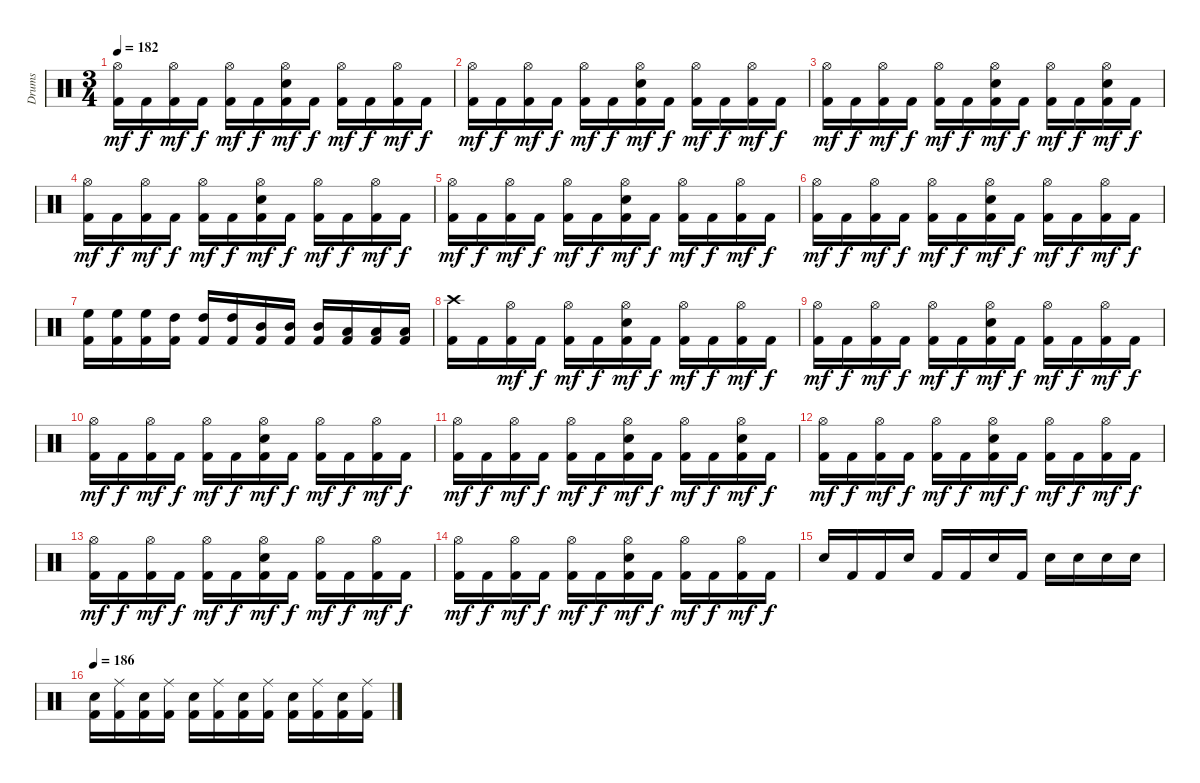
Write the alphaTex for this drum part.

\track ("Drums" "Drums") {instrument percussion}
\staff {score}
\articulation defaults
\ts (3 4)
\tempo 182
\clef neutral
\ks c
("Hi-Hat (open)" "Kick (hit) 2").16{dy mf} "Kick (hit) 2".16{dy f} ("Hi-Hat (open)" "Kick (hit) 2").16{dy mf} "Kick (hit) 2".16{dy f} ("Hi-Hat (open)" "Kick (hit) 2").16{dy mf} "Kick (hit) 2".16{dy f} ("Hi-Hat (open)" "Electric Snare (hit)" "Kick (hit) 2").16{dy mf} "Kick (hit) 2".16{dy f} ("Hi-Hat (open)" "Kick (hit) 2").16{dy mf} "Kick (hit) 2".16{dy f} ("Hi-Hat (open)" "Kick (hit) 2").16{dy mf} "Kick (hit) 2".16{dy f} |
("Hi-Hat (open)" "Kick (hit) 2").16{dy mf} "Kick (hit) 2".16{dy f} ("Hi-Hat (open)" "Kick (hit) 2").16{dy mf} "Kick (hit) 2".16{dy f} ("Hi-Hat (open)" "Kick (hit) 2").16{dy mf} "Kick (hit) 2".16{dy f} ("Hi-Hat (open)" "Electric Snare (hit)" "Kick (hit) 2").16{dy mf} "Kick (hit) 2".16{dy f} ("Hi-Hat (open)" "Kick (hit) 2").16{dy mf} "Kick (hit) 2".16{dy f} ("Hi-Hat (open)" "Kick (hit) 2").16{dy mf} "Kick (hit) 2".16{dy f} |
("Hi-Hat (open)" "Kick (hit) 2").16{dy mf} "Kick (hit) 2".16{dy f} ("Hi-Hat (open)" "Kick (hit) 2").16{dy mf} "Kick (hit) 2".16{dy f} ("Hi-Hat (open)" "Kick (hit) 2").16{dy mf} "Kick (hit) 2".16{dy f} ("Hi-Hat (open)" "Electric Snare (hit)" "Kick (hit) 2").16{dy mf} "Kick (hit) 2".16{dy f} ("Hi-Hat (open)" "Kick (hit) 2").16{dy mf} "Kick (hit) 2".16{dy f} ("Hi-Hat (open)" "Electric Snare (hit)" "Kick (hit) 2").16{dy mf} "Kick (hit) 2".16{dy f} |
("Hi-Hat (open)" "Kick (hit) 2").16{dy mf} "Kick (hit) 2".16{dy f} ("Hi-Hat (open)" "Kick (hit) 2").16{dy mf} "Kick (hit) 2".16{dy f} ("Hi-Hat (open)" "Kick (hit) 2").16{dy mf} "Kick (hit) 2".16{dy f} ("Hi-Hat (open)" "Electric Snare (hit)" "Kick (hit) 2").16{dy mf} "Kick (hit) 2".16{dy f} ("Hi-Hat (open)" "Kick (hit) 2").16{dy mf} "Kick (hit) 2".16{dy f} ("Hi-Hat (open)" "Kick (hit) 2").16{dy mf} "Kick (hit) 2".16{dy f} |
("Hi-Hat (open)" "Kick (hit) 2").16{dy mf} "Kick (hit) 2".16{dy f} ("Hi-Hat (open)" "Kick (hit) 2").16{dy mf} "Kick (hit) 2".16{dy f} ("Hi-Hat (open)" "Kick (hit) 2").16{dy mf} "Kick (hit) 2".16{dy f} ("Hi-Hat (open)" "Electric Snare (hit)" "Kick (hit) 2").16{dy mf} "Kick (hit) 2".16{dy f} ("Hi-Hat (open)" "Kick (hit) 2").16{dy mf} "Kick (hit) 2".16{dy f} ("Hi-Hat (open)" "Kick (hit) 2").16{dy mf} "Kick (hit) 2".16{dy f} |
("Hi-Hat (open)" "Kick (hit) 2").16{dy mf} "Kick (hit) 2".16{dy f} ("Hi-Hat (open)" "Kick (hit) 2").16{dy mf} "Kick (hit) 2".16{dy f} ("Hi-Hat (open)" "Kick (hit) 2").16{dy mf} "Kick (hit) 2".16{dy f} ("Hi-Hat (open)" "Electric Snare (hit)" "Kick (hit) 2").16{dy mf} "Kick (hit) 2".16{dy f} ("Hi-Hat (open)" "Kick (hit) 2").16{dy mf} "Kick (hit) 2".16{dy f} ("Hi-Hat (open)" "Kick (hit) 2").16{dy mf} "Kick (hit) 2".16{dy f} |
("High Floor Tom (hit)" "Kick (hit) 2").16 ("High Floor Tom (hit)" "Kick (hit) 2").16 ("High Floor Tom (hit)" "Kick (hit) 2").16 ("High Tom (hit)" "Kick (hit) 2").16 ("High Tom (hit)" "Kick (hit) 2").16 ("High Tom (hit)" "Kick (hit) 2").16 ("Mid Tom (hit)" "Kick (hit) 2").16 ("Mid Tom (hit)" "Kick (hit) 2").16 ("Mid Tom (hit)" "Kick (hit) 2").16 ("Low Tom (hit)" "Kick (hit) 2").16 ("Low Tom (hit)" "Kick (hit) 2").16 ("Low Tom (hit)" "Kick (hit) 2").16 |
("Crash high (hit)" "Kick (hit) 2").16 "Kick (hit) 2".16 ("Hi-Hat (open)" "Kick (hit) 2").16{dy mf} "Kick (hit) 2".16{dy f} ("Hi-Hat (open)" "Kick (hit) 2").16{dy mf} "Kick (hit) 2".16{dy f} ("Hi-Hat (open)" "Electric Snare (hit)" "Kick (hit) 2").16{dy mf} "Kick (hit) 2".16{dy f} ("Hi-Hat (open)" "Kick (hit) 2").16{dy mf} "Kick (hit) 2".16{dy f} ("Hi-Hat (open)" "Kick (hit) 2").16{dy mf} "Kick (hit) 2".16{dy f} |
("Hi-Hat (open)" "Kick (hit) 2").16{dy mf} "Kick (hit) 2".16{dy f} ("Hi-Hat (open)" "Kick (hit) 2").16{dy mf} "Kick (hit) 2".16{dy f} ("Hi-Hat (open)" "Kick (hit) 2").16{dy mf} "Kick (hit) 2".16{dy f} ("Hi-Hat (open)" "Electric Snare (hit)" "Kick (hit) 2").16{dy mf} "Kick (hit) 2".16{dy f} ("Hi-Hat (open)" "Kick (hit) 2").16{dy mf} "Kick (hit) 2".16{dy f} ("Hi-Hat (open)" "Kick (hit) 2").16{dy mf} "Kick (hit) 2".16{dy f} |
("Hi-Hat (open)" "Kick (hit) 2").16{dy mf} "Kick (hit) 2".16{dy f} ("Hi-Hat (open)" "Kick (hit) 2").16{dy mf} "Kick (hit) 2".16{dy f} ("Hi-Hat (open)" "Kick (hit) 2").16{dy mf} "Kick (hit) 2".16{dy f} ("Hi-Hat (open)" "Electric Snare (hit)" "Kick (hit) 2").16{dy mf} "Kick (hit) 2".16{dy f} ("Hi-Hat (open)" "Kick (hit) 2").16{dy mf} "Kick (hit) 2".16{dy f} ("Hi-Hat (open)" "Kick (hit) 2").16{dy mf} "Kick (hit) 2".16{dy f} |
("Hi-Hat (open)" "Kick (hit) 2").16{dy mf} "Kick (hit) 2".16{dy f} ("Hi-Hat (open)" "Kick (hit) 2").16{dy mf} "Kick (hit) 2".16{dy f} ("Hi-Hat (open)" "Kick (hit) 2").16{dy mf} "Kick (hit) 2".16{dy f} ("Hi-Hat (open)" "Electric Snare (hit)" "Kick (hit) 2").16{dy mf} "Kick (hit) 2".16{dy f} ("Hi-Hat (open)" "Kick (hit) 2").16{dy mf} "Kick (hit) 2".16{dy f} ("Hi-Hat (open)" "Electric Snare (hit)" "Kick (hit) 2").16{dy mf} "Kick (hit) 2".16{dy f} |
("Hi-Hat (open)" "Kick (hit) 2").16{dy mf} "Kick (hit) 2".16{dy f} ("Hi-Hat (open)" "Kick (hit) 2").16{dy mf} "Kick (hit) 2".16{dy f} ("Hi-Hat (open)" "Kick (hit) 2").16{dy mf} "Kick (hit) 2".16{dy f} ("Hi-Hat (open)" "Electric Snare (hit)" "Kick (hit) 2").16{dy mf} "Kick (hit) 2".16{dy f} ("Hi-Hat (open)" "Kick (hit) 2").16{dy mf} "Kick (hit) 2".16{dy f} ("Hi-Hat (open)" "Kick (hit) 2").16{dy mf} "Kick (hit) 2".16{dy f} |
("Hi-Hat (open)" "Kick (hit) 2").16{dy mf} "Kick (hit) 2".16{dy f} ("Hi-Hat (open)" "Kick (hit) 2").16{dy mf} "Kick (hit) 2".16{dy f} ("Hi-Hat (open)" "Kick (hit) 2").16{dy mf} "Kick (hit) 2".16{dy f} ("Hi-Hat (open)" "Electric Snare (hit)" "Kick (hit) 2").16{dy mf} "Kick (hit) 2".16{dy f} ("Hi-Hat (open)" "Kick (hit) 2").16{dy mf} "Kick (hit) 2".16{dy f} ("Hi-Hat (open)" "Kick (hit) 2").16{dy mf} "Kick (hit) 2".16{dy f} |
("Hi-Hat (open)" "Kick (hit) 2").16{dy mf} "Kick (hit) 2".16{dy f} ("Hi-Hat (open)" "Kick (hit) 2").16{dy mf} "Kick (hit) 2".16{dy f} ("Hi-Hat (open)" "Kick (hit) 2").16{dy mf} "Kick (hit) 2".16{dy f} ("Hi-Hat (open)" "Electric Snare (hit)" "Kick (hit) 2").16{dy mf} "Kick (hit) 2".16{dy f} ("Hi-Hat (open)" "Kick (hit) 2").16{dy mf} "Kick (hit) 2".16{dy f} ("Hi-Hat (open)" "Kick (hit) 2").16{dy mf} "Kick (hit) 2".16{dy f} |
"Electric Snare (hit)".16 "Kick (hit) 2".16 "Kick (hit) 2".16 "Electric Snare (hit)".16 "Kick (hit) 2".16 "Kick (hit) 2".16 "Electric Snare (hit)".16 "Kick (hit) 2".16 "Electric Snare (hit)".16 "Electric Snare (hit)".16 "Electric Snare (hit)".16 "Electric Snare (hit)".16 |
\tempo 186
("Electric Snare (hit)" "Kick (hit) 2").16 ("Ride (middle)" "Kick (hit) 2").16 ("Electric Snare (hit)" "Kick (hit) 2").16 ("Ride (middle)" "Kick (hit) 2").16 ("Electric Snare (hit)" "Kick (hit) 2").16 ("Ride (middle)" "Kick (hit) 2").16 ("Electric Snare (hit)" "Kick (hit) 2").16 ("Ride (middle)" "Kick (hit) 2").16 ("Electric Snare (hit)" "Kick (hit) 2").16 ("Ride (middle)" "Kick (hit) 2").16 ("Electric Snare (hit)" "Kick (hit) 2").16 ("Ride (middle)" "Kick (hit) 2").16
